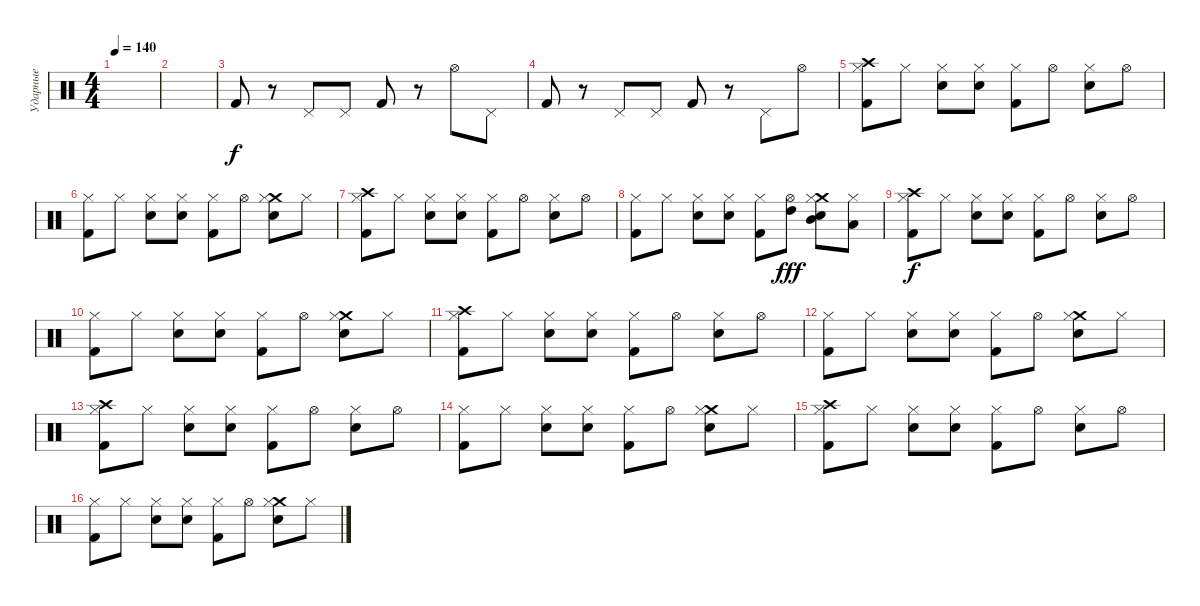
\track ("Ударные" "Ударные") {instrument percussion}
\staff {score}
\articulation defaults
\ts (4 4)
\tempo 140
\clef neutral
\ks c
|
|
"Kick (hit) 2".8 r.8 "Pedal Hi-Hat (hit)".8 "Pedal Hi-Hat (hit)".8 "Kick (hit) 2".8 r.8 "Hi-Hat (open)".8 "Pedal Hi-Hat (hit)".8 |
"Kick (hit) 2".8 r.8 "Pedal Hi-Hat (hit)".8 "Pedal Hi-Hat (hit)".8 "Kick (hit) 2".8 r.8 "Pedal Hi-Hat (hit)".8 "Hi-Hat (open)".8 |
("Crash high (hit)" "Hi-Hat (closed)" "Kick (hit) 2").8 "Hi-Hat (closed)".8 ("Hi-Hat (closed)" "Snare (hit) 2").8 ("Hi-Hat (closed)" "Snare (hit) 2").8 ("Hi-Hat (closed)" "Kick (hit) 2").8 "Hi-Hat (open)".8 ("Hi-Hat (closed)" "Snare (hit) 2").8 "Hi-Hat (open)".8 |
("Hi-Hat (closed)" "Kick (hit) 2").8 "Hi-Hat (closed)".8 ("Hi-Hat (closed)" "Snare (hit) 2").8 ("Hi-Hat (closed)" "Snare (hit) 2").8 ("Hi-Hat (closed)" "Kick (hit) 2").8 "Hi-Hat (open)".8 ("Crash medium (hit)" "Hi-Hat (closed)" "Snare (hit) 2").8 "Hi-Hat (closed)".8 |
("Crash high (hit)" "Hi-Hat (closed)" "Kick (hit) 2").8 "Hi-Hat (closed)".8 ("Hi-Hat (closed)" "Snare (hit) 2").8 ("Hi-Hat (closed)" "Snare (hit) 2").8 ("Hi-Hat (closed)" "Kick (hit) 2").8 "Hi-Hat (open)".8 ("Hi-Hat (closed)" "Snare (hit) 2").8 "Hi-Hat (open)".8 |
("Hi-Hat (closed)" "Kick (hit) 2").8 "Hi-Hat (closed)".8 ("Hi-Hat (closed)" "Snare (hit) 2").8 ("Hi-Hat (closed)" "Snare (hit) 2").8 ("Hi-Hat (closed)" "Kick (hit) 2").8 ("Hi-Hat (open)" "High Tom (hit)").8{dy fff} ("Crash medium (hit)" "Hi-Hat (closed)" "Snare (hit) 2" "Mid Tom (hit)").8 ("Hi-Hat (closed)" "Low Tom (hit)").8 |
("Crash high (hit)" "Hi-Hat (closed)" "Kick (hit) 2").8{dy f} "Hi-Hat (closed)".8 ("Hi-Hat (closed)" "Snare (hit) 2").8 ("Hi-Hat (closed)" "Snare (hit) 2").8 ("Hi-Hat (closed)" "Kick (hit) 2").8 "Hi-Hat (open)".8 ("Hi-Hat (closed)" "Snare (hit) 2").8 "Hi-Hat (open)".8 |
("Hi-Hat (closed)" "Kick (hit) 2").8 "Hi-Hat (closed)".8 ("Hi-Hat (closed)" "Snare (hit) 2").8 ("Hi-Hat (closed)" "Snare (hit) 2").8 ("Hi-Hat (closed)" "Kick (hit) 2").8 "Hi-Hat (open)".8 ("Crash medium (hit)" "Hi-Hat (closed)" "Snare (hit) 2").8 "Hi-Hat (closed)".8 |
("Crash high (hit)" "Hi-Hat (closed)" "Kick (hit) 2").8 "Hi-Hat (closed)".8 ("Hi-Hat (closed)" "Snare (hit) 2").8 ("Hi-Hat (closed)" "Snare (hit) 2").8 ("Hi-Hat (closed)" "Kick (hit) 2").8 "Hi-Hat (open)".8 ("Hi-Hat (closed)" "Snare (hit) 2").8 "Hi-Hat (open)".8 |
("Hi-Hat (closed)" "Kick (hit) 2").8 "Hi-Hat (closed)".8 ("Hi-Hat (closed)" "Snare (hit) 2").8 ("Hi-Hat (closed)" "Snare (hit) 2").8 ("Hi-Hat (closed)" "Kick (hit) 2").8 "Hi-Hat (open)".8 ("Crash medium (hit)" "Hi-Hat (closed)" "Snare (hit) 2").8 "Hi-Hat (closed)".8 |
("Crash high (hit)" "Hi-Hat (closed)" "Kick (hit) 2").8 "Hi-Hat (closed)".8 ("Hi-Hat (closed)" "Snare (hit) 2").8 ("Hi-Hat (closed)" "Snare (hit) 2").8 ("Hi-Hat (closed)" "Kick (hit) 2").8 "Hi-Hat (open)".8 ("Hi-Hat (closed)" "Snare (hit) 2").8 "Hi-Hat (open)".8 |
("Hi-Hat (closed)" "Kick (hit) 2").8 "Hi-Hat (closed)".8 ("Hi-Hat (closed)" "Snare (hit) 2").8 ("Hi-Hat (closed)" "Snare (hit) 2").8 ("Hi-Hat (closed)" "Kick (hit) 2").8 "Hi-Hat (open)".8 ("Crash medium (hit)" "Hi-Hat (closed)" "Snare (hit) 2").8 "Hi-Hat (closed)".8 |
("Crash high (hit)" "Hi-Hat (closed)" "Kick (hit) 2").8 "Hi-Hat (closed)".8 ("Hi-Hat (closed)" "Snare (hit) 2").8 ("Hi-Hat (closed)" "Snare (hit) 2").8 ("Hi-Hat (closed)" "Kick (hit) 2").8 "Hi-Hat (open)".8 ("Hi-Hat (closed)" "Snare (hit) 2").8 "Hi-Hat (open)".8 |
("Hi-Hat (closed)" "Kick (hit) 2").8 "Hi-Hat (closed)".8 ("Hi-Hat (closed)" "Snare (hit) 2").8 ("Hi-Hat (closed)" "Snare (hit) 2").8 ("Hi-Hat (closed)" "Kick (hit) 2").8 "Hi-Hat (open)".8 ("Crash medium (hit)" "Hi-Hat (closed)" "Snare (hit) 2").8 "Hi-Hat (closed)".8
